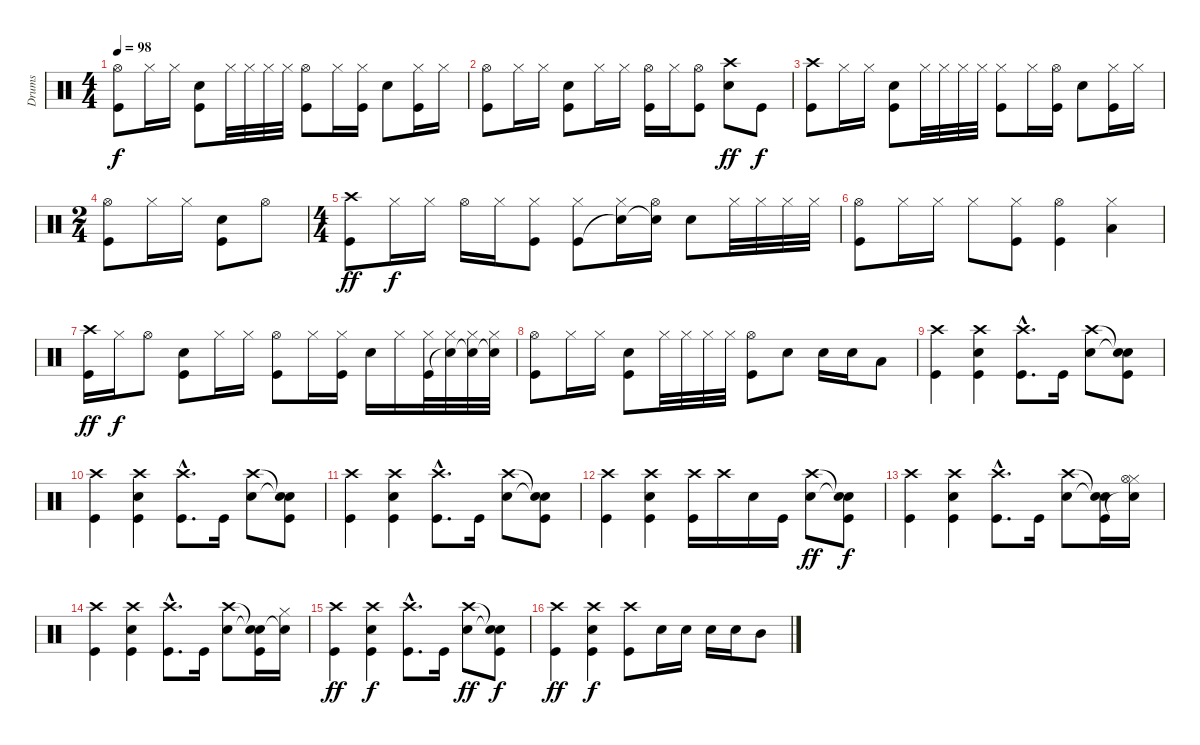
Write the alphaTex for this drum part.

\track ("Drums" "Drums") {instrument percussion}
\staff {score}
\articulation defaults
\ts (4 4)
\tempo 98
\clef neutral
\ks c
("Hi-Hat (open)" "Kick (hit)").8{dy f} "Hi-Hat (closed)".16 "Hi-Hat (closed)".16 ("Kick (hit)" "Electric Snare (hit)").8 "Hi-Hat (closed)".32 "Hi-Hat (closed)".32 "Hi-Hat (closed)".32 "Hi-Hat (closed)".32 ("Hi-Hat (open)" "Kick (hit)").8 "Hi-Hat (closed)".16 ("Hi-Hat (closed)" "Kick (hit)").16 "Electric Snare (hit)".8 ("Hi-Hat (closed)" "Kick (hit)").16 "Hi-Hat (closed)".16 |
("Hi-Hat (open)" "Kick (hit)").8 "Hi-Hat (closed)".16 "Hi-Hat (closed)".16 ("Kick (hit)" "Electric Snare (hit)").8 "Hi-Hat (closed)".16 "Hi-Hat (closed)".16 ("Hi-Hat (open)" "Kick (hit)").16 "Hi-Hat (closed)".16 ("Hi-Hat (open)" "Kick (hit)").8 ("Crash high (hit)" "Electric Snare (hit)").8{dy ff} "Kick (hit)".8{dy f} |
("Crash high (hit)" "Kick (hit)").8 "Hi-Hat (closed)".16 "Hi-Hat (closed)".16 ("Kick (hit)" "Electric Snare (hit)").8 "Hi-Hat (closed)".32 "Hi-Hat (closed)".32 "Hi-Hat (closed)".32 "Hi-Hat (closed)".32 ("Hi-Hat (closed)" "Kick (hit)").8 "Hi-Hat (closed)".16 ("Hi-Hat (open)" "Kick (hit)").16 "Electric Snare (hit)".8 ("Hi-Hat (closed)" "Kick (hit)").16 "Hi-Hat (closed)".16 |
\ts (2 4)
("Hi-Hat (open)" "Kick (hit)").8 "Hi-Hat (closed)".16 "Hi-Hat (closed)".16 ("Kick (hit)" "Electric Snare (hit)").8 "Hi-Hat (open)".8 |
\ts (4 4)
("Crash high (hit)" "Kick (hit)").8{dy ff} "Hi-Hat (closed)".16{dy f} "Hi-Hat (closed)".16 "Hi-Hat (open)".16 "Hi-Hat (closed)".16 ("Hi-Hat (closed)" "Kick (hit)").8 ("Hi-Hat (closed)" "Kick (hit)").8 ("Hi-Hat (closed)" "Snare (hit)"{t}).16 ("Hi-Hat (open)" "Snare (hit)"{t}).16 "Electric Snare (hit)".8 "Hi-Hat (closed)".32 "Hi-Hat (closed)".32 "Hi-Hat (closed)".32 "Hi-Hat (closed)".32 |
("Hi-Hat (open)" "Kick (hit)").8 "Hi-Hat (closed)".16 "Hi-Hat (closed)".16 "Hi-Hat (closed)".8 ("Hi-Hat (closed)" "Kick (hit)").8 ("Hi-Hat (open)" "Kick (hit)").4 ("Hi-Hat (closed)" "Low Tom (hit)").4 |
("Crash high (hit)" "Kick (hit)").16{dy ff} "Hi-Hat (closed)".16{dy f} "Hi-Hat (open)".8 ("Kick (hit)" "Electric Snare (hit)").8 "Hi-Hat (closed)".16 "Hi-Hat (closed)".16 ("Hi-Hat (open)" "Kick (hit)").8 "Hi-Hat (closed)".16 ("Hi-Hat (closed)" "Kick (hit)").16 "Electric Snare (hit)".16 "Hi-Hat (closed)".16 ("Hi-Hat (closed)" "Kick (hit)").32 ("Hi-Hat (closed)" "Snare (hit)"{t}).32 ("Hi-Hat (closed)" "Snare (hit)"{t}).32 ("Hi-Hat (closed)" "Snare (hit)"{t}).32 |
("Hi-Hat (open)" "Kick (hit)").8 "Hi-Hat (closed)".16 "Hi-Hat (closed)".16 ("Electric Snare (hit)" "Kick (hit)").8 "Hi-Hat (closed)".32 "Hi-Hat (closed)".32 "Hi-Hat (closed)".32 "Hi-Hat (closed)".32 ("Hi-Hat (open)" "Kick (hit)").8 "Electric Snare (hit)".8 "Electric Snare (hit)".16 "Electric Snare (hit)".16 "Low Tom (hit)".8 |
("Crash high (hit)" "Kick (hit)").4 ("Crash high (hit)" "Electric Snare (hit)" "Kick (hit)").4 ("Crash high (hit)"{hac} "Kick (hit)"{hac}).8{d} "Kick (hit)".16 ("Crash high (hit)" "Electric Snare (hit)").8 ("Snare (hit)"{t} "Snare (hit)"{t} "Kick (hit)").8 |
("Crash high (hit)" "Kick (hit)").4 ("Crash high (hit)" "Electric Snare (hit)" "Kick (hit)").4 ("Crash high (hit)"{hac} "Kick (hit)"{hac}).8{d} "Kick (hit)".16 ("Crash high (hit)" "Electric Snare (hit)").8 ("Snare (hit)"{t} "Snare (hit)"{t} "Kick (hit)").8 |
("Crash high (hit)" "Kick (hit)").4 ("Crash high (hit)" "Electric Snare (hit)" "Kick (hit)").4 ("Crash high (hit)"{hac} "Kick (hit)"{hac}).8{d} "Kick (hit)".16 ("Crash high (hit)" "Electric Snare (hit)").8 ("Snare (hit)"{t} "Snare (hit)"{t} "Kick (hit)").8 |
("Crash high (hit)" "Kick (hit)").4 ("Crash high (hit)" "Electric Snare (hit)" "Kick (hit)").4 ("Crash high (hit)" "Kick (hit)").16 "Crash high (hit)".16 "Electric Snare (hit)".16 "Kick (hit)".16 ("Crash high (hit)" "Electric Snare (hit)").8{dy ff} ("Snare (hit)"{t} "Snare (hit)"{t} "Kick (hit)").8{dy f} |
("Crash high (hit)" "Kick (hit)").4 ("Crash high (hit)" "Electric Snare (hit)" "Kick (hit)").4 ("Crash high (hit)"{hac} "Kick (hit)"{hac}).8{d} "Kick (hit)".16 ("Crash high (hit)" "Electric Snare (hit)").8 ("Snare (hit)"{t} "Snare (hit)"{t} "Kick (hit)").16 ("Hi-Hat (closed)" "Hi-Hat (open)" "Snare (hit)"{t}).16 |
("Crash high (hit)" "Kick (hit)").4 ("Crash high (hit)" "Electric Snare (hit)" "Kick (hit)").4 ("Crash high (hit)"{hac} "Kick (hit)"{hac}).8{d} "Kick (hit)".16 ("Crash high (hit)" "Electric Snare (hit)").8 ("Snare (hit)"{t} "Snare (hit)"{t} "Kick (hit)").16 ("Hi-Hat (closed)" "Snare (hit)"{t}).16 |
("Crash high (hit)" "Kick (hit)").4{dy ff} ("Crash high (hit)" "Electric Snare (hit)" "Kick (hit)").4{dy f} ("Crash high (hit)"{hac} "Kick (hit)"{hac}).8{d} "Kick (hit)".16 ("Crash high (hit)" "Electric Snare (hit)").8{dy ff} ("Snare (hit)"{t} "Snare (hit)"{t} "Kick (hit)").8{dy f} |
("Crash high (hit)" "Kick (hit)").4{dy ff} ("Crash high (hit)" "Kick (hit)" "Electric Snare (hit)").4{dy f} ("Crash high (hit)" "Kick (hit)").8 "Electric Snare (hit)".16 "Electric Snare (hit)".16 "Electric Snare (hit)".16 "Electric Snare (hit)".16 "Mid Tom (hit)".8
